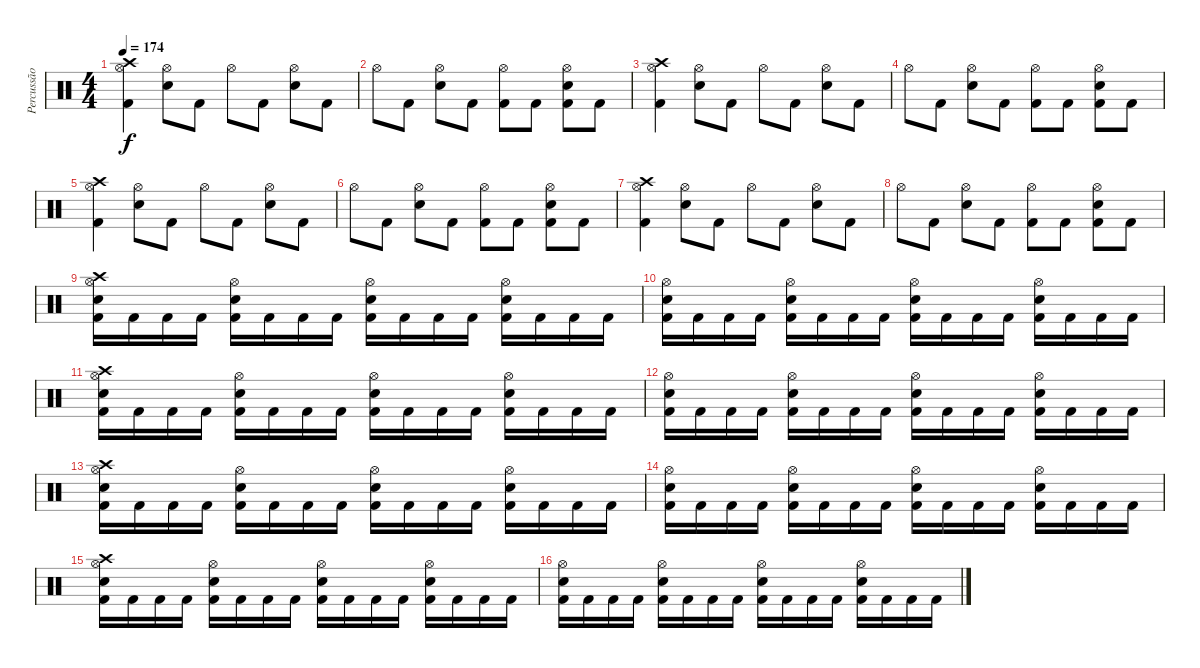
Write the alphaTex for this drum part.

\track ("Percussão" "Percussão") {instrument percussion}
\staff {score}
\articulation defaults
\ts (4 4)
\tempo 174
\clef neutral
\ks c
("Crash high (hit)" "Hi-Hat (open)" "Kick (hit) 2").4{dy f} ("Hi-Hat (open)" "Electric Snare (hit)").8 "Kick (hit) 2".8 "Hi-Hat (open)".8 "Kick (hit) 2".8 ("Hi-Hat (open)" "Electric Snare (hit)").8 "Kick (hit) 2".8 |
"Hi-Hat (open)".8 "Kick (hit) 2".8 ("Hi-Hat (open)" "Electric Snare (hit)").8 "Kick (hit) 2".8 ("Hi-Hat (open)" "Kick (hit) 2").8 "Kick (hit) 2".8 ("Hi-Hat (open)" "Electric Snare (hit)" "Kick (hit) 2").8 "Kick (hit) 2".8 |
("Crash high (hit)" "Hi-Hat (open)" "Kick (hit) 2").4 ("Hi-Hat (open)" "Electric Snare (hit)").8 "Kick (hit) 2".8 "Hi-Hat (open)".8 "Kick (hit) 2".8 ("Hi-Hat (open)" "Electric Snare (hit)").8 "Kick (hit) 2".8 |
"Hi-Hat (open)".8 "Kick (hit) 2".8 ("Hi-Hat (open)" "Electric Snare (hit)").8 "Kick (hit) 2".8 ("Hi-Hat (open)" "Kick (hit) 2").8 "Kick (hit) 2".8 ("Hi-Hat (open)" "Electric Snare (hit)" "Kick (hit) 2").8 "Kick (hit) 2".8 |
("Crash high (hit)" "Hi-Hat (open)" "Kick (hit) 2").4 ("Hi-Hat (open)" "Electric Snare (hit)").8 "Kick (hit) 2".8 "Hi-Hat (open)".8 "Kick (hit) 2".8 ("Hi-Hat (open)" "Electric Snare (hit)").8 "Kick (hit) 2".8 |
"Hi-Hat (open)".8 "Kick (hit) 2".8 ("Hi-Hat (open)" "Electric Snare (hit)").8 "Kick (hit) 2".8 ("Hi-Hat (open)" "Kick (hit) 2").8 "Kick (hit) 2".8 ("Hi-Hat (open)" "Electric Snare (hit)" "Kick (hit) 2").8 "Kick (hit) 2".8 |
("Crash high (hit)" "Hi-Hat (open)" "Kick (hit) 2").4 ("Hi-Hat (open)" "Electric Snare (hit)").8 "Kick (hit) 2".8 "Hi-Hat (open)".8 "Kick (hit) 2".8 ("Hi-Hat (open)" "Electric Snare (hit)").8 "Kick (hit) 2".8 |
"Hi-Hat (open)".8 "Kick (hit) 2".8 ("Hi-Hat (open)" "Electric Snare (hit)").8 "Kick (hit) 2".8 ("Hi-Hat (open)" "Kick (hit) 2").8 "Kick (hit) 2".8 ("Hi-Hat (open)" "Electric Snare (hit)" "Kick (hit) 2").8 "Kick (hit) 2".8 |
("Crash high (hit)" "Hi-Hat (open)" "Electric Snare (hit)" "Kick (hit) 2").16 "Kick (hit) 2".16 "Kick (hit) 2".16 "Kick (hit) 2".16 ("Hi-Hat (open)" "Electric Snare (hit)" "Kick (hit) 2").16 "Kick (hit) 2".16 "Kick (hit) 2".16 "Kick (hit) 2".16 ("Hi-Hat (open)" "Electric Snare (hit)" "Kick (hit) 2").16 "Kick (hit) 2".16 "Kick (hit) 2".16 "Kick (hit) 2".16 ("Hi-Hat (open)" "Electric Snare (hit)" "Kick (hit) 2").16 "Kick (hit) 2".16 "Kick (hit) 2".16 "Kick (hit) 2".16 |
("Hi-Hat (open)" "Electric Snare (hit)" "Kick (hit) 2").16 "Kick (hit) 2".16 "Kick (hit) 2".16 "Kick (hit) 2".16 ("Hi-Hat (open)" "Electric Snare (hit)" "Kick (hit) 2").16 "Kick (hit) 2".16 "Kick (hit) 2".16 "Kick (hit) 2".16 ("Hi-Hat (open)" "Electric Snare (hit)" "Kick (hit) 2").16 "Kick (hit) 2".16 "Kick (hit) 2".16 "Kick (hit) 2".16 ("Hi-Hat (open)" "Electric Snare (hit)" "Kick (hit) 2").16 "Kick (hit) 2".16 "Kick (hit) 2".16 "Kick (hit) 2".16 |
("Crash high (hit)" "Hi-Hat (open)" "Electric Snare (hit)" "Kick (hit) 2").16 "Kick (hit) 2".16 "Kick (hit) 2".16 "Kick (hit) 2".16 ("Hi-Hat (open)" "Electric Snare (hit)" "Kick (hit) 2").16 "Kick (hit) 2".16 "Kick (hit) 2".16 "Kick (hit) 2".16 ("Hi-Hat (open)" "Electric Snare (hit)" "Kick (hit) 2").16 "Kick (hit) 2".16 "Kick (hit) 2".16 "Kick (hit) 2".16 ("Hi-Hat (open)" "Electric Snare (hit)" "Kick (hit) 2").16 "Kick (hit) 2".16 "Kick (hit) 2".16 "Kick (hit) 2".16 |
("Hi-Hat (open)" "Electric Snare (hit)" "Kick (hit) 2").16 "Kick (hit) 2".16 "Kick (hit) 2".16 "Kick (hit) 2".16 ("Hi-Hat (open)" "Electric Snare (hit)" "Kick (hit) 2").16 "Kick (hit) 2".16 "Kick (hit) 2".16 "Kick (hit) 2".16 ("Hi-Hat (open)" "Electric Snare (hit)" "Kick (hit) 2").16 "Kick (hit) 2".16 "Kick (hit) 2".16 "Kick (hit) 2".16 ("Hi-Hat (open)" "Electric Snare (hit)" "Kick (hit) 2").16 "Kick (hit) 2".16 "Kick (hit) 2".16 "Kick (hit) 2".16 |
("Crash high (hit)" "Hi-Hat (open)" "Electric Snare (hit)" "Kick (hit) 2").16 "Kick (hit) 2".16 "Kick (hit) 2".16 "Kick (hit) 2".16 ("Hi-Hat (open)" "Electric Snare (hit)" "Kick (hit) 2").16 "Kick (hit) 2".16 "Kick (hit) 2".16 "Kick (hit) 2".16 ("Hi-Hat (open)" "Electric Snare (hit)" "Kick (hit) 2").16 "Kick (hit) 2".16 "Kick (hit) 2".16 "Kick (hit) 2".16 ("Hi-Hat (open)" "Electric Snare (hit)" "Kick (hit) 2").16 "Kick (hit) 2".16 "Kick (hit) 2".16 "Kick (hit) 2".16 |
("Hi-Hat (open)" "Electric Snare (hit)" "Kick (hit) 2").16 "Kick (hit) 2".16 "Kick (hit) 2".16 "Kick (hit) 2".16 ("Hi-Hat (open)" "Electric Snare (hit)" "Kick (hit) 2").16 "Kick (hit) 2".16 "Kick (hit) 2".16 "Kick (hit) 2".16 ("Hi-Hat (open)" "Electric Snare (hit)" "Kick (hit) 2").16 "Kick (hit) 2".16 "Kick (hit) 2".16 "Kick (hit) 2".16 ("Hi-Hat (open)" "Electric Snare (hit)" "Kick (hit) 2").16 "Kick (hit) 2".16 "Kick (hit) 2".16 "Kick (hit) 2".16 |
("Crash high (hit)" "Hi-Hat (open)" "Electric Snare (hit)" "Kick (hit) 2").16 "Kick (hit) 2".16 "Kick (hit) 2".16 "Kick (hit) 2".16 ("Hi-Hat (open)" "Electric Snare (hit)" "Kick (hit) 2").16 "Kick (hit) 2".16 "Kick (hit) 2".16 "Kick (hit) 2".16 ("Hi-Hat (open)" "Electric Snare (hit)" "Kick (hit) 2").16 "Kick (hit) 2".16 "Kick (hit) 2".16 "Kick (hit) 2".16 ("Hi-Hat (open)" "Electric Snare (hit)" "Kick (hit) 2").16 "Kick (hit) 2".16 "Kick (hit) 2".16 "Kick (hit) 2".16 |
("Hi-Hat (open)" "Electric Snare (hit)" "Kick (hit) 2").16 "Kick (hit) 2".16 "Kick (hit) 2".16 "Kick (hit) 2".16 ("Hi-Hat (open)" "Electric Snare (hit)" "Kick (hit) 2").16 "Kick (hit) 2".16 "Kick (hit) 2".16 "Kick (hit) 2".16 ("Hi-Hat (open)" "Electric Snare (hit)" "Kick (hit) 2").16 "Kick (hit) 2".16 "Kick (hit) 2".16 "Kick (hit) 2".16 ("Hi-Hat (open)" "Electric Snare (hit)" "Kick (hit) 2").16 "Kick (hit) 2".16 "Kick (hit) 2".16 "Kick (hit) 2".16
